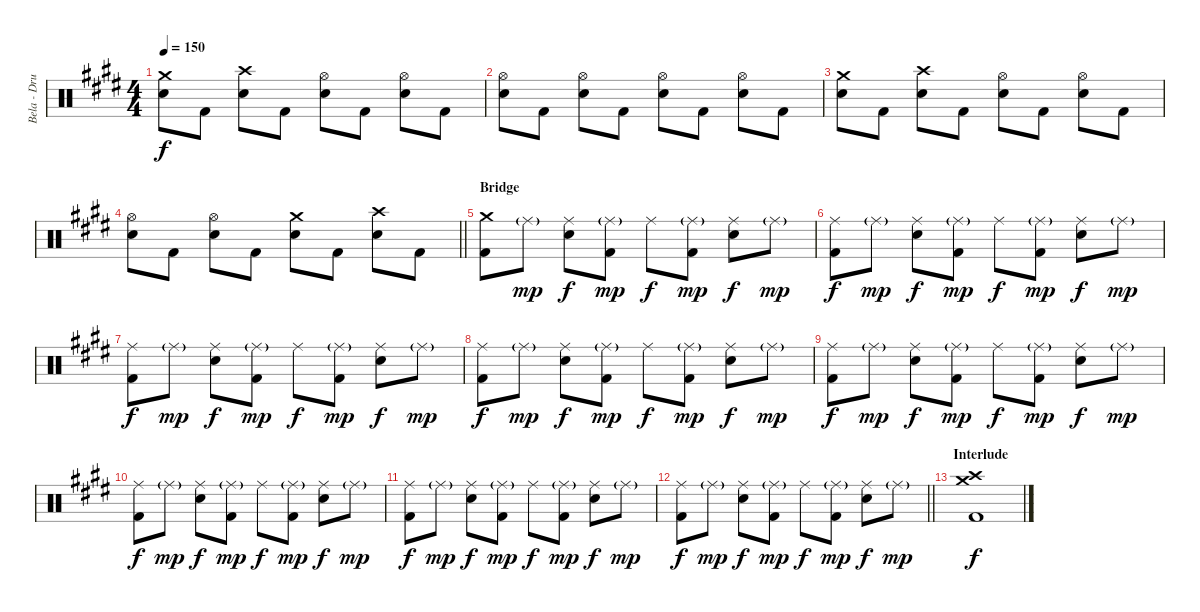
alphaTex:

\track ("Bela - Drums" "Bela - Dru") {instrument percussion}
\staff {score}
\articulation defaults
\ts (4 4)
\tempo 150
\clef neutral
\ks e
("Crash medium (hit)" "Electric Snare (hit)").8{dy f} "Kick (hit) 2".8 ("Crash high (hit)" "Electric Snare (hit)").8 "Kick (hit) 2".8 ("Hi-Hat (open)" "Electric Snare (hit)").8 "Kick (hit) 2".8 ("Hi-Hat (open)" "Electric Snare (hit)").8 "Kick (hit) 2".8 |
("Hi-Hat (open)" "Electric Snare (hit)").8 "Kick (hit) 2".8 ("Hi-Hat (open)" "Electric Snare (hit)").8 "Kick (hit) 2".8 ("Hi-Hat (open)" "Electric Snare (hit)").8 "Kick (hit) 2".8 ("Hi-Hat (open)" "Electric Snare (hit)").8 "Kick (hit) 2".8 |
("Crash medium (hit)" "Electric Snare (hit)").8 "Kick (hit) 2".8 ("Crash high (hit)" "Electric Snare (hit)").8 "Kick (hit) 2".8 ("Hi-Hat (open)" "Electric Snare (hit)").8 "Kick (hit) 2".8 ("Hi-Hat (open)" "Electric Snare (hit)").8 "Kick (hit) 2".8 |
\barLineRight lightlight
("Hi-Hat (open)" "Electric Snare (hit)").8 "Kick (hit) 2".8 ("Hi-Hat (open)" "Electric Snare (hit)").8 "Kick (hit) 2".8 ("Crash medium (hit)" "Electric Snare (hit)").8 "Kick (hit) 2".8 ("Crash high (hit)" "Electric Snare (hit)").8 "Kick (hit) 2".8 |
\section ("" "Bridge")
("Crash medium (hit)" "Kick (hit) 2").8 "Ride (middle)"{g}.8{dy mp} ("Ride (middle)" "Electric Snare (hit)").8{dy f} ("Ride (middle)"{g} "Kick (hit) 2").8{dy mp} "Ride (middle)".8{dy f} ("Ride (middle)"{g} "Kick (hit) 2").8{dy mp} ("Ride (middle)" "Electric Snare (hit)").8{dy f} "Ride (middle)"{g}.8{dy mp} |
("Ride (middle)" "Kick (hit) 2").8{dy f} "Ride (middle)"{g}.8{dy mp} ("Ride (middle)" "Electric Snare (hit)").8{dy f} ("Ride (middle)"{g} "Kick (hit) 2").8{dy mp} "Ride (middle)".8{dy f} ("Ride (middle)"{g} "Kick (hit) 2").8{dy mp} ("Ride (middle)" "Electric Snare (hit)").8{dy f} "Ride (middle)"{g}.8{dy mp} |
("Ride (middle)" "Kick (hit) 2").8{dy f} "Ride (middle)"{g}.8{dy mp} ("Ride (middle)" "Electric Snare (hit)").8{dy f} ("Ride (middle)"{g} "Kick (hit) 2").8{dy mp} "Ride (middle)".8{dy f} ("Ride (middle)"{g} "Kick (hit) 2").8{dy mp} ("Ride (middle)" "Electric Snare (hit)").8{dy f} "Ride (middle)"{g}.8{dy mp} |
("Ride (middle)" "Kick (hit) 2").8{dy f} "Ride (middle)"{g}.8{dy mp} ("Ride (middle)" "Electric Snare (hit)").8{dy f} ("Ride (middle)"{g} "Kick (hit) 2").8{dy mp} "Ride (middle)".8{dy f} ("Ride (middle)"{g} "Kick (hit) 2").8{dy mp} ("Ride (middle)" "Electric Snare (hit)").8{dy f} "Ride (middle)"{g}.8{dy mp} |
("Ride (middle)" "Kick (hit) 2").8{dy f} "Ride (middle)"{g}.8{dy mp} ("Ride (middle)" "Electric Snare (hit)").8{dy f} ("Ride (middle)"{g} "Kick (hit) 2").8{dy mp} "Ride (middle)".8{dy f} ("Ride (middle)"{g} "Kick (hit) 2").8{dy mp} ("Ride (middle)" "Electric Snare (hit)").8{dy f} "Ride (middle)"{g}.8{dy mp} |
("Ride (middle)" "Kick (hit) 2").8{dy f} "Ride (middle)"{g}.8{dy mp} ("Ride (middle)" "Electric Snare (hit)").8{dy f} ("Ride (middle)"{g} "Kick (hit) 2").8{dy mp} "Ride (middle)".8{dy f} ("Ride (middle)"{g} "Kick (hit) 2").8{dy mp} ("Ride (middle)" "Electric Snare (hit)").8{dy f} "Ride (middle)"{g}.8{dy mp} |
("Ride (middle)" "Kick (hit) 2").8{dy f} "Ride (middle)"{g}.8{dy mp} ("Ride (middle)" "Electric Snare (hit)").8{dy f} ("Ride (middle)"{g} "Kick (hit) 2").8{dy mp} "Ride (middle)".8{dy f} ("Ride (middle)"{g} "Kick (hit) 2").8{dy mp} ("Ride (middle)" "Electric Snare (hit)").8{dy f} "Ride (middle)"{g}.8{dy mp} |
\barLineRight lightlight
("Ride (middle)" "Kick (hit) 2").8{dy f} "Ride (middle)"{g}.8{dy mp} ("Ride (middle)" "Electric Snare (hit)").8{dy f} ("Ride (middle)"{g} "Kick (hit) 2").8{dy mp} "Ride (middle)".8{dy f} ("Ride (middle)"{g} "Kick (hit) 2").8{dy mp} ("Ride (middle)" "Electric Snare (hit)").8{dy f} "Ride (middle)"{g}.8{dy mp} |
\section ("" "Interlude")
("Crash high (hit)" "Crash medium (hit)" "Kick (hit) 2").1{dy f}
